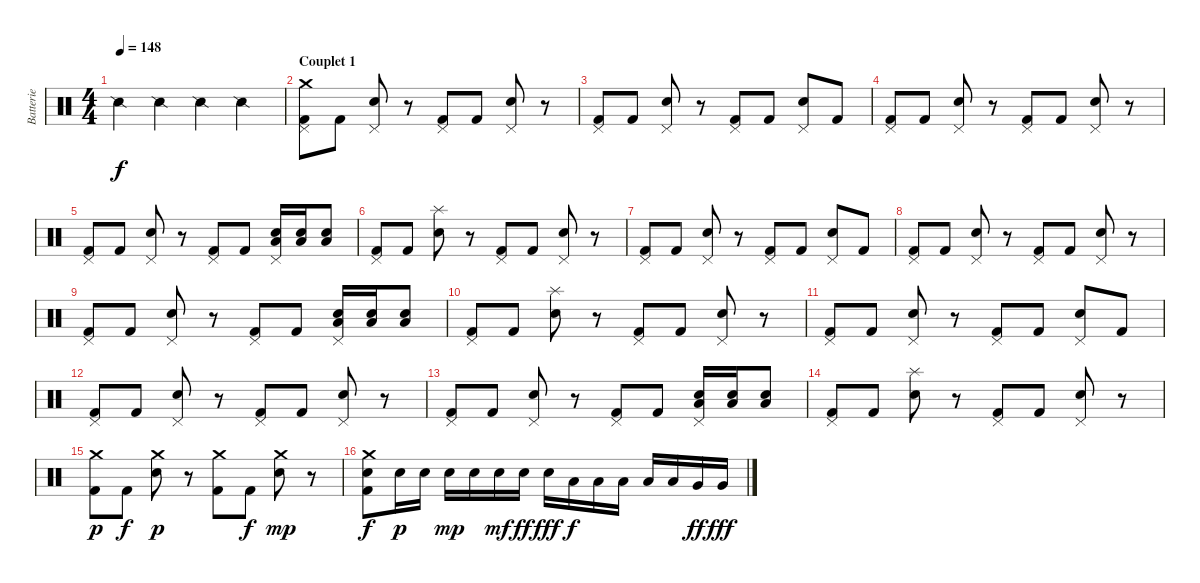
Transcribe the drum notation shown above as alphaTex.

\track ("Batterie" "Batterie") {instrument percussion}
\staff {score}
\articulation defaults
\ts (4 4)
\tempo 148
\clef neutral
\ks c "Snare (side stick) 2".4{dy f} "Snare (side stick) 2".4 "Snare (side stick) 2".4 "Snare (side stick) 2".4
|
\section ("" "Couplet 1")
("Crash medium (hit)" "Pedal Hi-Hat (hit)" "Kick (hit) 2").8 "Kick (hit) 2".8 ("Pedal Hi-Hat (hit)" "Electric Snare (hit)").8 r.8 ("Pedal Hi-Hat (hit)" "Kick (hit) 2").8 "Kick (hit) 2".8 ("Pedal Hi-Hat (hit)" "Electric Snare (hit)").8 r.8 |
("Pedal Hi-Hat (hit)" "Kick (hit) 2").8 "Kick (hit) 2".8 ("Pedal Hi-Hat (hit)" "Electric Snare (hit)").8 r.8 ("Pedal Hi-Hat (hit)" "Kick (hit) 2").8 "Kick (hit) 2".8 ("Pedal Hi-Hat (hit)" "Electric Snare (hit)").8 "Kick (hit) 2".8 |
("Pedal Hi-Hat (hit)" "Kick (hit) 2").8 "Kick (hit) 2".8 ("Pedal Hi-Hat (hit)" "Electric Snare (hit)").8 r.8 ("Pedal Hi-Hat (hit)" "Kick (hit) 2").8 "Kick (hit) 2".8 ("Pedal Hi-Hat (hit)" "Electric Snare (hit)").8 r.8 |
("Pedal Hi-Hat (hit)" "Kick (hit) 2").8 "Kick (hit) 2".8 ("Pedal Hi-Hat (hit)" "Electric Snare (hit)").8 r.8 ("Pedal Hi-Hat (hit)" "Kick (hit) 2").8 "Kick (hit) 2".8 ("Pedal Hi-Hat (hit)" "Electric Snare (hit)" "Low Tom (hit)").16 ("Electric Snare (hit)" "Low Tom (hit)").16 ("Electric Snare (hit)" "Low Tom (hit)").8 |
("Pedal Hi-Hat (hit)" "Kick (hit) 2").8 "Kick (hit) 2".8 ("Splash (hit)" "Electric Snare (hit)").8 r.8 ("Pedal Hi-Hat (hit)" "Kick (hit) 2").8 "Kick (hit) 2".8 ("Pedal Hi-Hat (hit)" "Electric Snare (hit)").8 r.8 |
("Pedal Hi-Hat (hit)" "Kick (hit) 2").8 "Kick (hit) 2".8 ("Pedal Hi-Hat (hit)" "Electric Snare (hit)").8 r.8 ("Pedal Hi-Hat (hit)" "Kick (hit) 2").8 "Kick (hit) 2".8 ("Pedal Hi-Hat (hit)" "Electric Snare (hit)").8 "Kick (hit) 2".8 |
("Pedal Hi-Hat (hit)" "Kick (hit) 2").8 "Kick (hit) 2".8 ("Pedal Hi-Hat (hit)" "Electric Snare (hit)").8 r.8 ("Pedal Hi-Hat (hit)" "Kick (hit) 2").8 "Kick (hit) 2".8 ("Pedal Hi-Hat (hit)" "Electric Snare (hit)").8 r.8 |
("Pedal Hi-Hat (hit)" "Kick (hit) 2").8 "Kick (hit) 2".8 ("Pedal Hi-Hat (hit)" "Electric Snare (hit)").8 r.8 ("Pedal Hi-Hat (hit)" "Kick (hit) 2").8 "Kick (hit) 2".8 ("Pedal Hi-Hat (hit)" "Electric Snare (hit)" "Low Tom (hit)").16 ("Electric Snare (hit)" "Low Tom (hit)").16 ("Electric Snare (hit)" "Low Tom (hit)").8 |
("Pedal Hi-Hat (hit)" "Kick (hit) 2").8 "Kick (hit) 2".8 ("Splash (hit)" "Electric Snare (hit)").8 r.8 ("Pedal Hi-Hat (hit)" "Kick (hit) 2").8 "Kick (hit) 2".8 ("Pedal Hi-Hat (hit)" "Electric Snare (hit)").8 r.8 |
("Pedal Hi-Hat (hit)" "Kick (hit) 2").8 "Kick (hit) 2".8 ("Pedal Hi-Hat (hit)" "Electric Snare (hit)").8 r.8 ("Pedal Hi-Hat (hit)" "Kick (hit) 2").8 "Kick (hit) 2".8 ("Pedal Hi-Hat (hit)" "Electric Snare (hit)").8 "Kick (hit) 2".8 |
("Pedal Hi-Hat (hit)" "Kick (hit) 2").8 "Kick (hit) 2".8 ("Pedal Hi-Hat (hit)" "Electric Snare (hit)").8 r.8 ("Pedal Hi-Hat (hit)" "Kick (hit) 2").8 "Kick (hit) 2".8 ("Pedal Hi-Hat (hit)" "Electric Snare (hit)").8 r.8 |
("Pedal Hi-Hat (hit)" "Kick (hit) 2").8 "Kick (hit) 2".8 ("Pedal Hi-Hat (hit)" "Electric Snare (hit)").8 r.8 ("Pedal Hi-Hat (hit)" "Kick (hit) 2").8 "Kick (hit) 2".8 ("Pedal Hi-Hat (hit)" "Electric Snare (hit)" "Low Tom (hit)").16 ("Electric Snare (hit)" "Low Tom (hit)").16 ("Electric Snare (hit)" "Low Tom (hit)").8 |
("Pedal Hi-Hat (hit)" "Kick (hit) 2").8 "Kick (hit) 2".8 ("Splash (hit)" "Electric Snare (hit)").8 r.8 ("Pedal Hi-Hat (hit)" "Kick (hit) 2").8 "Kick (hit) 2".8 ("Pedal Hi-Hat (hit)" "Electric Snare (hit)").8 r.8 |
("Crash medium (hit)" "Kick (hit) 2").8{dy p} "Kick (hit) 2".8{dy f} ("Crash medium (hit)" "Electric Snare (hit)").8{dy p} r.8 ("Crash medium (hit)" "Kick (hit) 2").8 "Kick (hit) 2".8{dy f} ("Crash medium (hit)" "Electric Snare (hit)").8{dy mp} r.8 |
("Crash medium (hit)" "Electric Snare (hit)" "Kick (hit) 2").8{dy f} "Electric Snare (hit)".16{dy p} "Electric Snare (hit)".16 "Electric Snare (hit)".16{dy mp} "Electric Snare (hit)".16 "Electric Snare (hit)".16{dy mf} "Electric Snare (hit)".16{dy ff} "Electric Snare (hit)".16{dy fff} "Low Tom (hit)".16{dy f} "Low Tom (hit)".16 "Low Tom (hit)".16 "Low Tom (hit)".16 "Low Tom (hit)".16 "Very Low Tom (hit)".16{dy ff} "Very Low Tom (hit)".16{dy fff}
